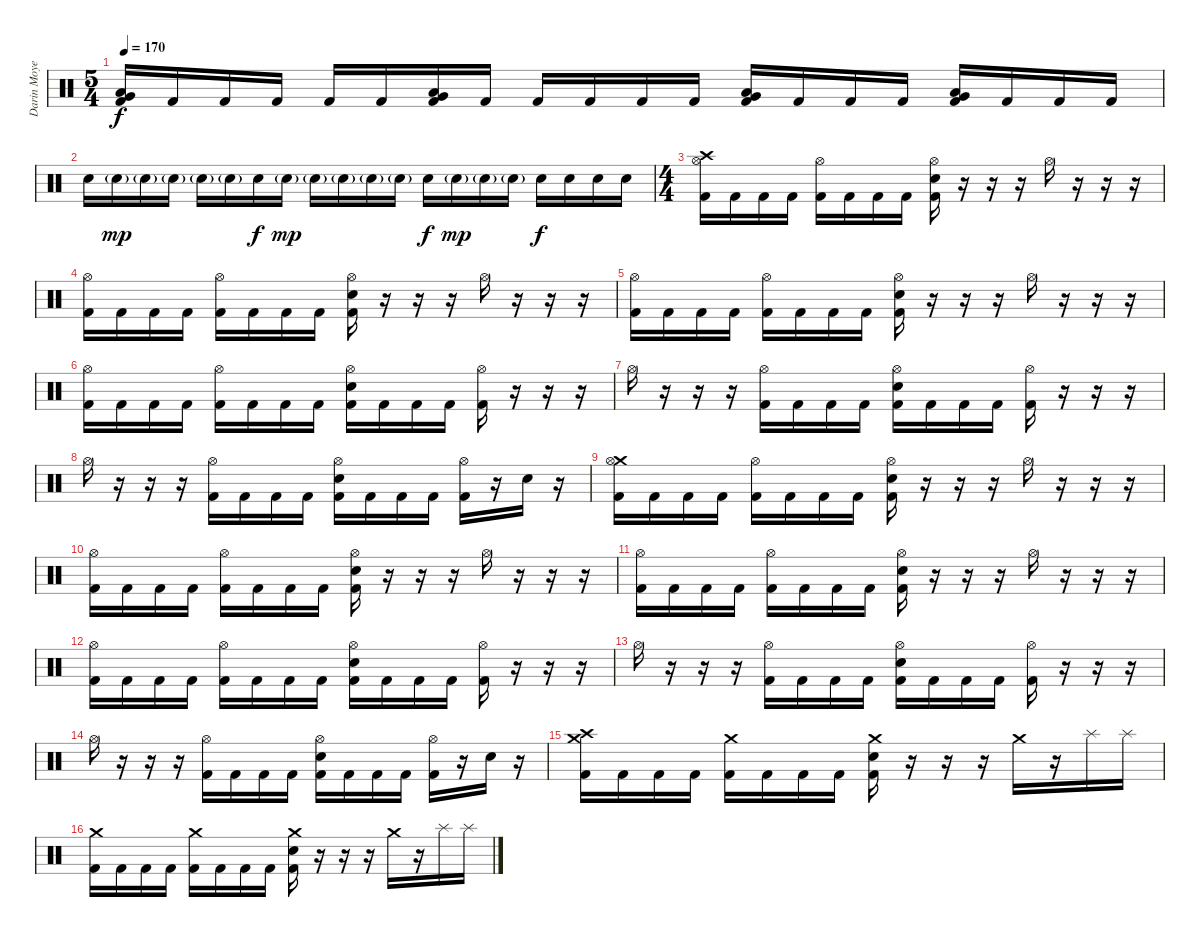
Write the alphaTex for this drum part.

\track ("Darin Moyen" "Darin Moye") {instrument percussion}
\staff {score}
\articulation defaults
\ts (5 4)
\tempo 170
\clef neutral
\ks c
("Very Low Tom (hit)" "Low Tom (hit)" "Kick (hit) 2").16{dy f} "Kick (hit) 2".16 "Kick (hit) 2".16 "Kick (hit) 2".16 "Kick (hit) 2".16 "Kick (hit) 2".16 ("Low Tom (hit)" "Very Low Tom (hit)" "Kick (hit) 2").16 "Kick (hit) 2".16 "Kick (hit) 2".16 "Kick (hit) 2".16 "Kick (hit) 2".16 "Kick (hit) 2".16 ("Very Low Tom (hit)" "Low Tom (hit)" "Kick (hit) 2").16 "Kick (hit) 2".16 "Kick (hit) 2".16 "Kick (hit) 2".16 ("Very Low Tom (hit)" "Low Tom (hit)" "Kick (hit) 2").16 "Kick (hit) 2".16 "Kick (hit) 2".16 "Kick (hit) 2".16 |
"Electric Snare (hit)".16 "Electric Snare (hit)"{g}.16{dy mp} "Electric Snare (hit)"{g}.16 "Electric Snare (hit)"{g}.16 "Electric Snare (hit)"{g}.16 "Electric Snare (hit)"{g}.16 "Electric Snare (hit)".16{dy f} "Electric Snare (hit)"{g}.16{dy mp} "Electric Snare (hit)"{g}.16 "Electric Snare (hit)"{g}.16 "Electric Snare (hit)"{g}.16 "Electric Snare (hit)"{g}.16 "Electric Snare (hit)".16{dy f} "Electric Snare (hit)"{g}.16{dy mp} "Electric Snare (hit)"{g}.16 "Electric Snare (hit)"{g}.16 "Electric Snare (hit)".16{dy f} "Electric Snare (hit)".16 "Electric Snare (hit)".16 "Electric Snare (hit)".16 |
\ts (4 4)
("Crash high (hit)" "Hi-Hat (open)" "Kick (hit) 2").16 "Kick (hit) 2".16 "Kick (hit) 2".16 "Kick (hit) 2".16 ("Hi-Hat (open)" "Kick (hit) 2").16 "Kick (hit) 2".16 "Kick (hit) 2".16 "Kick (hit) 2".16 ("Hi-Hat (open)" "Electric Snare (hit)" "Kick (hit) 2").16 r.16 r.16 r.16 "Hi-Hat (open)".16 r.16 r.16 r.16 |
("Hi-Hat (open)" "Kick (hit) 2").16 "Kick (hit) 2".16 "Kick (hit) 2".16 "Kick (hit) 2".16 ("Hi-Hat (open)" "Kick (hit) 2").16 "Kick (hit) 2".16 "Kick (hit) 2".16 "Kick (hit) 2".16 ("Hi-Hat (open)" "Electric Snare (hit)" "Kick (hit) 2").16 r.16 r.16 r.16 "Hi-Hat (open)".16 r.16 r.16 r.16 |
("Hi-Hat (open)" "Kick (hit) 2").16 "Kick (hit) 2".16 "Kick (hit) 2".16 "Kick (hit) 2".16 ("Hi-Hat (open)" "Kick (hit) 2").16 "Kick (hit) 2".16 "Kick (hit) 2".16 "Kick (hit) 2".16 ("Hi-Hat (open)" "Electric Snare (hit)" "Kick (hit) 2").16 r.16 r.16 r.16 "Hi-Hat (open)".16 r.16 r.16 r.16 |
("Hi-Hat (open)" "Kick (hit) 2").16 "Kick (hit) 2".16 "Kick (hit) 2".16 "Kick (hit) 2".16 ("Hi-Hat (open)" "Kick (hit) 2").16 "Kick (hit) 2".16 "Kick (hit) 2".16 "Kick (hit) 2".16 ("Hi-Hat (open)" "Electric Snare (hit)" "Kick (hit) 2").16 "Kick (hit) 2".16 "Kick (hit) 2".16 "Kick (hit) 2".16 ("Hi-Hat (open)" "Kick (hit) 2").16 r.16 r.16 r.16 |
"Hi-Hat (open)".16 r.16 r.16 r.16 ("Hi-Hat (open)" "Kick (hit) 2").16 "Kick (hit) 2".16 "Kick (hit) 2".16 "Kick (hit) 2".16 ("Hi-Hat (open)" "Electric Snare (hit)" "Kick (hit) 2").16 "Kick (hit) 2".16 "Kick (hit) 2".16 "Kick (hit) 2".16 ("Hi-Hat (open)" "Kick (hit) 2").16 r.16 r.16 r.16 |
"Hi-Hat (open)".16 r.16 r.16 r.16 ("Hi-Hat (open)" "Kick (hit) 2").16 "Kick (hit) 2".16 "Kick (hit) 2".16 "Kick (hit) 2".16 ("Hi-Hat (open)" "Electric Snare (hit)" "Kick (hit) 2").16 "Kick (hit) 2".16 "Kick (hit) 2".16 "Kick (hit) 2".16 ("Hi-Hat (open)" "Kick (hit) 2").16 r.16 "Electric Snare (hit)".16 r.16 |
("Crash medium (hit)" "Hi-Hat (open)" "Kick (hit) 2").16 "Kick (hit) 2".16 "Kick (hit) 2".16 "Kick (hit) 2".16 ("Hi-Hat (open)" "Kick (hit) 2").16 "Kick (hit) 2".16 "Kick (hit) 2".16 "Kick (hit) 2".16 ("Hi-Hat (open)" "Electric Snare (hit)" "Kick (hit) 2").16 r.16 r.16 r.16 "Hi-Hat (open)".16 r.16 r.16 r.16 |
("Hi-Hat (open)" "Kick (hit) 2").16 "Kick (hit) 2".16 "Kick (hit) 2".16 "Kick (hit) 2".16 ("Hi-Hat (open)" "Kick (hit) 2").16 "Kick (hit) 2".16 "Kick (hit) 2".16 "Kick (hit) 2".16 ("Hi-Hat (open)" "Electric Snare (hit)" "Kick (hit) 2").16 r.16 r.16 r.16 "Hi-Hat (open)".16 r.16 r.16 r.16 |
("Hi-Hat (open)" "Kick (hit) 2").16 "Kick (hit) 2".16 "Kick (hit) 2".16 "Kick (hit) 2".16 ("Hi-Hat (open)" "Kick (hit) 2").16 "Kick (hit) 2".16 "Kick (hit) 2".16 "Kick (hit) 2".16 ("Hi-Hat (open)" "Electric Snare (hit)" "Kick (hit) 2").16 r.16 r.16 r.16 "Hi-Hat (open)".16 r.16 r.16 r.16 |
("Hi-Hat (open)" "Kick (hit) 2").16 "Kick (hit) 2".16 "Kick (hit) 2".16 "Kick (hit) 2".16 ("Hi-Hat (open)" "Kick (hit) 2").16 "Kick (hit) 2".16 "Kick (hit) 2".16 "Kick (hit) 2".16 ("Hi-Hat (open)" "Electric Snare (hit)" "Kick (hit) 2").16 "Kick (hit) 2".16 "Kick (hit) 2".16 "Kick (hit) 2".16 ("Hi-Hat (open)" "Kick (hit) 2").16 r.16 r.16 r.16 |
"Hi-Hat (open)".16 r.16 r.16 r.16 ("Hi-Hat (open)" "Kick (hit) 2").16 "Kick (hit) 2".16 "Kick (hit) 2".16 "Kick (hit) 2".16 ("Hi-Hat (open)" "Electric Snare (hit)" "Kick (hit) 2").16 "Kick (hit) 2".16 "Kick (hit) 2".16 "Kick (hit) 2".16 ("Hi-Hat (open)" "Kick (hit) 2").16 r.16 r.16 r.16 |
"Hi-Hat (open)".16 r.16 r.16 r.16 ("Hi-Hat (open)" "Kick (hit) 2").16 "Kick (hit) 2".16 "Kick (hit) 2".16 "Kick (hit) 2".16 ("Hi-Hat (open)" "Electric Snare (hit)" "Kick (hit) 2").16 "Kick (hit) 2".16 "Kick (hit) 2".16 "Kick (hit) 2".16 ("Hi-Hat (open)" "Kick (hit) 2").16 r.16 "Electric Snare (hit)".16 r.16 |
("Crash high (hit)" "Crash medium (hit)" "Kick (hit) 2").16 "Kick (hit) 2".16 "Kick (hit) 2".16 "Kick (hit) 2".16 ("Crash medium (hit)" "Kick (hit) 2").16 "Kick (hit) 2".16 "Kick (hit) 2".16 "Kick (hit) 2".16 ("Crash medium (hit)" "Electric Snare (hit)" "Kick (hit) 2").16 r.16 r.16 r.16 "Crash medium (hit)".16 r.16 "Splash (hit)".16 "Splash (hit)".16 |
("Crash medium (hit)" "Kick (hit) 2").16 "Kick (hit) 2".16 "Kick (hit) 2".16 "Kick (hit) 2".16 ("Crash medium (hit)" "Kick (hit) 2").16 "Kick (hit) 2".16 "Kick (hit) 2".16 "Kick (hit) 2".16 ("Crash medium (hit)" "Electric Snare (hit)" "Kick (hit) 2").16 r.16 r.16 r.16 "Crash medium (hit)".16 r.16 "Splash (hit)".16 "Splash (hit)".16
